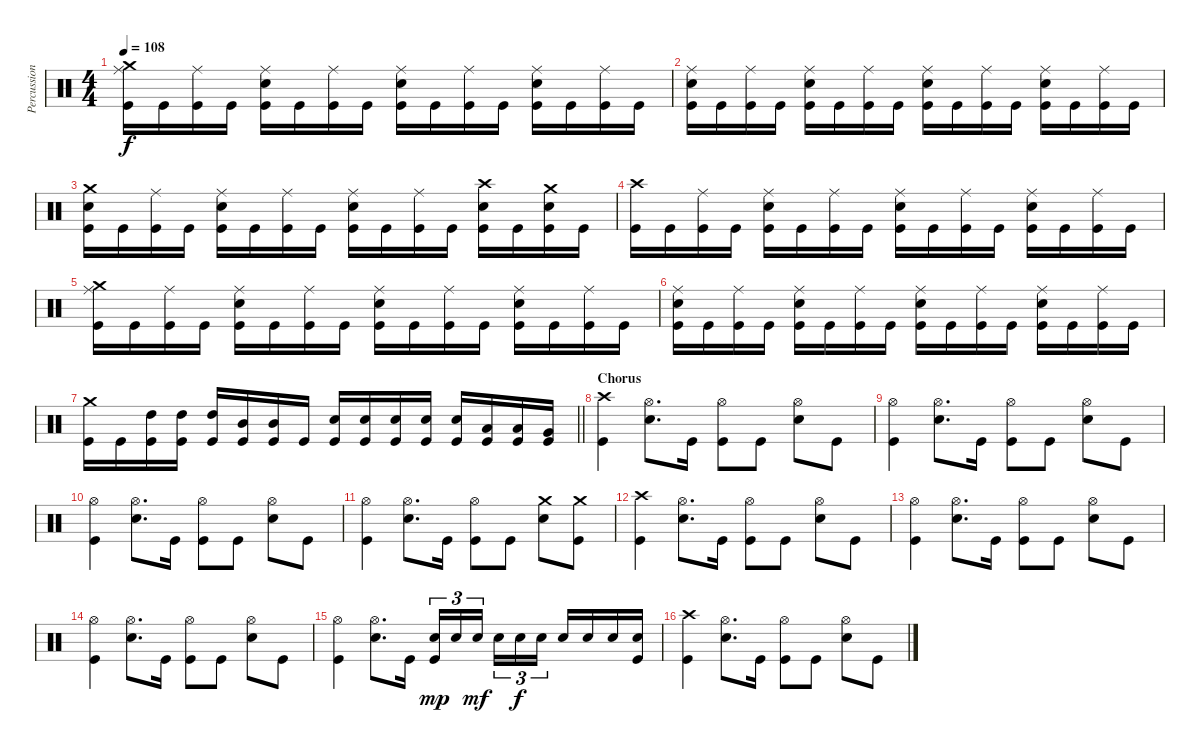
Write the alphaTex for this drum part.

\track ("Percussions" "Percussion") {instrument percussion}
\staff {score}
\articulation defaults
\ts (4 4)
\tempo 108
\clef neutral
\ks c
("Crash medium (hit)" "Ride (middle)" "Kick (hit)").16{dy f} "Kick (hit)".16 ("Ride (middle)" "Kick (hit)").16 "Kick (hit)".16 ("Ride (middle)" "Electric Snare (hit)" "Kick (hit)").16 "Kick (hit)".16 ("Ride (middle)" "Kick (hit)").16 "Kick (hit)".16 ("Ride (middle)" "Electric Snare (hit)" "Kick (hit)").16 "Kick (hit)".16 ("Ride (middle)" "Kick (hit)").16 "Kick (hit)".16 ("Ride (middle)" "Electric Snare (hit)" "Kick (hit)").16 "Kick (hit)".16 ("Ride (middle)" "Kick (hit)").16 "Kick (hit)".16 |
("Ride (middle)" "Electric Snare (hit)" "Kick (hit)").16 "Kick (hit)".16 ("Ride (middle)" "Kick (hit)").16 "Kick (hit)".16 ("Ride (middle)" "Electric Snare (hit)" "Kick (hit)").16 "Kick (hit)".16 ("Ride (middle)" "Kick (hit)").16 "Kick (hit)".16 ("Ride (middle)" "Electric Snare (hit)" "Kick (hit)").16 "Kick (hit)".16 ("Ride (middle)" "Kick (hit)").16 "Kick (hit)".16 ("Ride (middle)" "Electric Snare (hit)" "Kick (hit)").16 "Kick (hit)".16 ("Ride (middle)" "Kick (hit)").16 "Kick (hit)".16 |
("Crash medium (hit)" "Electric Snare (hit)" "Kick (hit)").16 "Kick (hit)".16 ("Ride (middle)" "Kick (hit)").16 "Kick (hit)".16 ("Ride (middle)" "Electric Snare (hit)" "Kick (hit)").16 "Kick (hit)".16 ("Ride (middle)" "Kick (hit)").16 "Kick (hit)".16 ("Ride (middle)" "Electric Snare (hit)" "Kick (hit)").16 "Kick (hit)".16 ("Ride (middle)" "Kick (hit)").16 "Kick (hit)".16 ("Crash high (hit)" "Electric Snare (hit)" "Kick (hit)").16 "Kick (hit)".16 ("Crash medium (hit)" "Electric Snare (hit)" "Kick (hit)").16 "Kick (hit)".16 |
("Crash high (hit)" "Kick (hit)").16 "Kick (hit)".16 ("Ride (middle)" "Kick (hit)").16 "Kick (hit)".16 ("Ride (middle)" "Electric Snare (hit)" "Kick (hit)").16 "Kick (hit)".16 ("Ride (middle)" "Kick (hit)").16 "Kick (hit)".16 ("Ride (middle)" "Electric Snare (hit)" "Kick (hit)").16 "Kick (hit)".16 ("Ride (middle)" "Kick (hit)").16 "Kick (hit)".16 ("Ride (middle)" "Electric Snare (hit)" "Kick (hit)").16 "Kick (hit)".16 ("Ride (middle)" "Kick (hit)").16 "Kick (hit)".16 |
("Crash medium (hit)" "Ride (middle)" "Kick (hit)").16 "Kick (hit)".16 ("Ride (middle)" "Kick (hit)").16 "Kick (hit)".16 ("Ride (middle)" "Electric Snare (hit)" "Kick (hit)").16 "Kick (hit)".16 ("Ride (middle)" "Kick (hit)").16 "Kick (hit)".16 ("Ride (middle)" "Electric Snare (hit)" "Kick (hit)").16 "Kick (hit)".16 ("Ride (middle)" "Kick (hit)").16 "Kick (hit)".16 ("Ride (middle)" "Electric Snare (hit)" "Kick (hit)").16 "Kick (hit)".16 ("Ride (middle)" "Kick (hit)").16 "Kick (hit)".16 |
("Ride (middle)" "Electric Snare (hit)" "Kick (hit)").16 "Kick (hit)".16 ("Ride (middle)" "Kick (hit)").16 "Kick (hit)".16 ("Ride (middle)" "Electric Snare (hit)" "Kick (hit)").16 "Kick (hit)".16 ("Ride (middle)" "Kick (hit)").16 "Kick (hit)".16 ("Ride (middle)" "Electric Snare (hit)" "Kick (hit)").16 "Kick (hit)".16 ("Ride (middle)" "Kick (hit)").16 "Kick (hit)".16 ("Ride (middle)" "Electric Snare (hit)" "Kick (hit)").16 "Kick (hit)".16 ("Ride (middle)" "Kick (hit)").16 "Kick (hit)".16 |
\barLineRight lightlight
("Crash medium (hit)" "Kick (hit)").16 "Kick (hit)".16 ("High Tom (hit)" "Kick (hit)").16 ("High Tom (hit)" "Kick (hit)").16 ("High Tom (hit)" "Kick (hit)").16 ("Mid Tom (hit)" "Kick (hit)").16 ("Mid Tom (hit)" "Kick (hit)").16 "Kick (hit)".16 ("Electric Snare (hit)" "Kick (hit)").16 ("Electric Snare (hit)" "Kick (hit)").16 ("Electric Snare (hit)" "Kick (hit)").16 ("Electric Snare (hit)" "Kick (hit)").16 ("Electric Snare (hit)" "Kick (hit)").16 ("Low Tom (hit)" "Kick (hit)").16 ("Low Tom (hit)" "Kick (hit)").16 ("Very Low Tom (hit)" "Kick (hit)").16 |
\section ("" "Chorus")
("Crash high (hit)" "Kick (hit)").4 ("Hi-Hat (open)" "Electric Snare (hit)").8{d} "Kick (hit)".16 ("Hi-Hat (open)" "Kick (hit)").8 "Kick (hit)".8 ("Hi-Hat (open)" "Electric Snare (hit)").8 "Kick (hit)".8 |
("Hi-Hat (open)" "Kick (hit)").4 ("Hi-Hat (open)" "Electric Snare (hit)").8{d} "Kick (hit)".16 ("Hi-Hat (open)" "Kick (hit)").8 "Kick (hit)".8 ("Hi-Hat (open)" "Electric Snare (hit)").8 "Kick (hit)".8 |
("Hi-Hat (open)" "Kick (hit)").4 ("Hi-Hat (open)" "Electric Snare (hit)").8{d} "Kick (hit)".16 ("Hi-Hat (open)" "Kick (hit)").8 "Kick (hit)".8 ("Hi-Hat (open)" "Electric Snare (hit)").8 "Kick (hit)".8 |
("Hi-Hat (open)" "Kick (hit)").4 ("Hi-Hat (open)" "Electric Snare (hit)").8{d} "Kick (hit)".16 ("Hi-Hat (open)" "Kick (hit)").8 "Kick (hit)".8 ("Crash medium (hit)" "Electric Snare (hit)").8 ("Crash medium (hit)" "Kick (hit)").8 |
("Crash high (hit)" "Kick (hit)").4 ("Hi-Hat (open)" "Electric Snare (hit)").8{d} "Kick (hit)".16 ("Hi-Hat (open)" "Kick (hit)").8 "Kick (hit)".8 ("Hi-Hat (open)" "Electric Snare (hit)").8 "Kick (hit)".8 |
("Hi-Hat (open)" "Kick (hit)").4 ("Hi-Hat (open)" "Electric Snare (hit)").8{d} "Kick (hit)".16 ("Hi-Hat (open)" "Kick (hit)").8 "Kick (hit)".8 ("Hi-Hat (open)" "Electric Snare (hit)").8 "Kick (hit)".8 |
("Hi-Hat (open)" "Kick (hit)").4 ("Hi-Hat (open)" "Electric Snare (hit)").8{d} "Kick (hit)".16 ("Hi-Hat (open)" "Kick (hit)").8 "Kick (hit)".8 ("Hi-Hat (open)" "Electric Snare (hit)").8 "Kick (hit)".8 |
("Hi-Hat (open)" "Kick (hit)").4 ("Hi-Hat (open)" "Electric Snare (hit)").8{d} "Kick (hit)".16 ("Electric Snare (hit)" "Kick (hit)").16{tu (3 2) dy mp} "Electric Snare (hit)".16{tu (3 2)} "Electric Snare (hit)".16{tu (3 2) dy mf beam splitsecondary} "Electric Snare (hit)".16{tu (3 2)} "Electric Snare (hit)".16{tu (3 2) dy f} "Electric Snare (hit)".16{tu (3 2)} "Electric Snare (hit)".16 "Electric Snare (hit)".16 "Electric Snare (hit)".16 ("Electric Snare (hit)" "Kick (hit)").16 |
("Crash high (hit)" "Kick (hit)").4 ("Hi-Hat (open)" "Electric Snare (hit)").8{d} "Kick (hit)".16 ("Hi-Hat (open)" "Kick (hit)").8 "Kick (hit)".8 ("Hi-Hat (open)" "Electric Snare (hit)").8 "Kick (hit)".8
